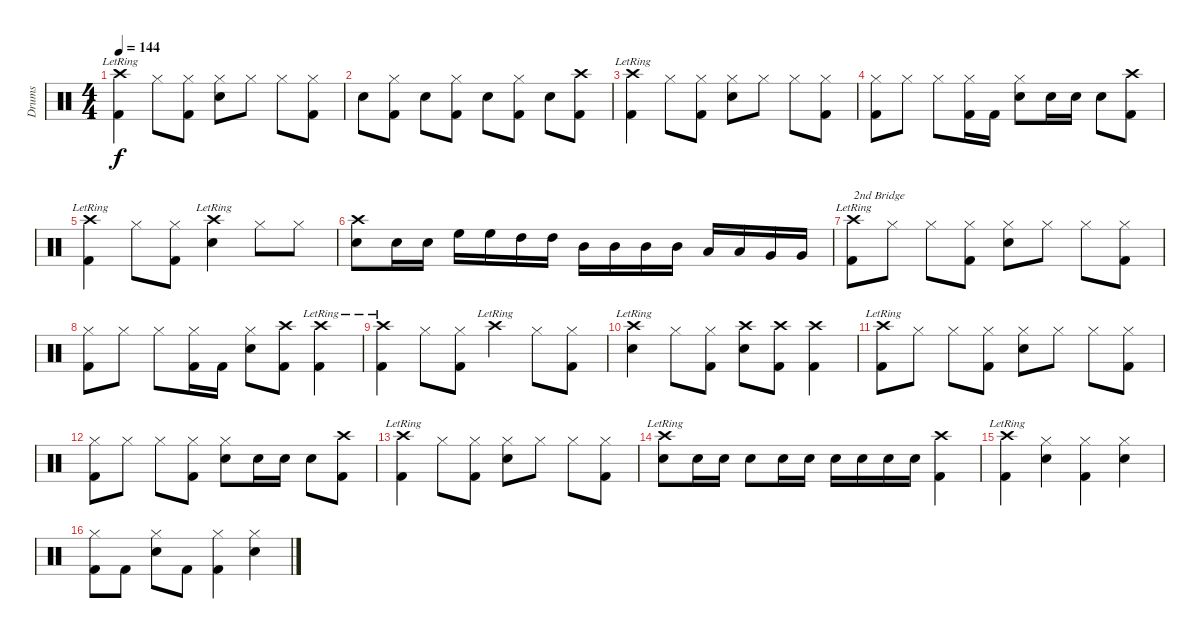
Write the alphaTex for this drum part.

\track ("Drums" "Drums") {instrument percussion}
\staff {score}
\articulation defaults
\ts (4 4)
\tempo 144
\clef neutral
\ks c
("Crash high (hit)"{lr} "Kick (hit) 2").4{dy f} "Hi-Hat (closed)".8 ("Hi-Hat (closed)" "Kick (hit) 2").8 ("Hi-Hat (closed)" "Snare (hit) 2").8 "Hi-Hat (closed)".8 "Hi-Hat (closed)".8 ("Hi-Hat (closed)" "Kick (hit) 2").8 |
"Snare (hit) 2".8 ("Hi-Hat (closed)" "Kick (hit) 2").8 "Snare (hit) 2".8 ("Hi-Hat (closed)" "Kick (hit) 2").8 "Snare (hit) 2".8 ("Hi-Hat (closed)" "Kick (hit) 2").8 "Snare (hit) 2".8 ("Crash high (hit)" "Kick (hit) 2").8 |
("Crash high (hit)"{lr} "Kick (hit) 2").4 "Hi-Hat (closed)".8 ("Hi-Hat (closed)" "Kick (hit) 2").8 ("Hi-Hat (closed)" "Snare (hit) 2").8 "Hi-Hat (closed)".8 "Hi-Hat (closed)".8 ("Hi-Hat (closed)" "Kick (hit) 2").8 |
("Hi-Hat (closed)" "Kick (hit) 2").8 "Hi-Hat (closed)".8 "Hi-Hat (closed)".8 ("Hi-Hat (closed)" "Kick (hit) 2").16 "Kick (hit) 2".16 ("Hi-Hat (closed)" "Snare (hit) 2").8 "Snare (hit) 2".16 "Snare (hit) 2".16 "Snare (hit) 2".8 ("Crash high (hit)" "Kick (hit) 2").8 |
("Crash high (hit)"{lr} "Kick (hit) 2").4 "Hi-Hat (closed)".8 ("Hi-Hat (closed)" "Kick (hit) 2").8 ("Crash high (hit)"{lr} "Snare (hit) 2").4 "Hi-Hat (closed)".8 "Hi-Hat (closed)".8 |
("Crash high (hit)" "Snare (hit) 2").8 "Snare (hit) 2".16 "Snare (hit) 2".16 "High Floor Tom (hit)".16 "High Floor Tom (hit)".16 "High Tom (hit)".16 "High Tom (hit)".16 "Mid Tom (hit)".16 "Mid Tom (hit)".16 "Mid Tom (hit)".16 "Mid Tom (hit)".16 "Low Tom (hit)".16 "Low Tom (hit)".16 "Very Low Tom (hit)".16 "Very Low Tom (hit)".16 |
("Crash high (hit)"{lr} "Kick (hit) 2").8{txt "2nd Bridge"} "Hi-Hat (closed)".8 "Hi-Hat (closed)".8 ("Hi-Hat (closed)" "Kick (hit) 2").8 ("Hi-Hat (closed)" "Snare (hit) 2").8 "Hi-Hat (closed)".8 "Hi-Hat (closed)".8 ("Hi-Hat (closed)" "Kick (hit) 2").8 |
("Hi-Hat (closed)" "Kick (hit) 2").8 "Hi-Hat (closed)".8 "Hi-Hat (closed)".8 ("Hi-Hat (closed)" "Kick (hit) 2").16 "Kick (hit) 2".16 ("Hi-Hat (closed)" "Snare (hit) 2").8 ("Crash high (hit)" "Kick (hit) 2").8 ("Crash high (hit)"{lr} "Kick (hit) 2").4 |
("Crash high (hit)"{lr} "Kick (hit) 2").4 "Hi-Hat (closed)".8 ("Hi-Hat (closed)" "Kick (hit) 2").8 "Crash high (hit)"{lr}.4 "Hi-Hat (closed)".8 ("Hi-Hat (closed)" "Kick (hit) 2").8 |
("Crash high (hit)"{lr} "Snare (hit) 2").4 "Hi-Hat (closed)".8 ("Hi-Hat (closed)" "Kick (hit) 2").8 ("Crash high (hit)" "Snare (hit) 2").8 ("Crash high (hit)" "Kick (hit) 2").8 ("Crash high (hit)" "Kick (hit) 2").4 |
("Crash high (hit)"{lr} "Kick (hit) 2").8 "Hi-Hat (closed)".8 "Hi-Hat (closed)".8 ("Hi-Hat (closed)" "Kick (hit) 2").8 ("Hi-Hat (closed)" "Snare (hit) 2").8 "Hi-Hat (closed)".8 "Hi-Hat (closed)".8 ("Hi-Hat (closed)" "Kick (hit) 2").8 |
("Hi-Hat (closed)" "Kick (hit) 2").8 "Hi-Hat (closed)".8 "Hi-Hat (closed)".8 ("Hi-Hat (closed)" "Kick (hit) 2").8 ("Hi-Hat (closed)" "Snare (hit) 2").8 "Snare (hit) 2".16 "Snare (hit) 2".16 "Snare (hit) 2".8 ("Crash high (hit)" "Kick (hit) 2").8 |
("Crash high (hit)"{lr} "Kick (hit) 2").4 "Hi-Hat (closed)".8 ("Hi-Hat (closed)" "Kick (hit) 2").8 ("Hi-Hat (closed)" "Snare (hit) 2").8 "Hi-Hat (closed)".8 "Hi-Hat (closed)".8 ("Hi-Hat (closed)" "Kick (hit) 2").8 |
("Crash high (hit)"{lr} "Snare (hit) 2").8 "Snare (hit) 2".16 "Snare (hit) 2".16 "Snare (hit) 2".8 "Snare (hit) 2".16 "Snare (hit) 2".16 "Snare (hit) 2".16 "Snare (hit) 2".16 "Snare (hit) 2".16 "Snare (hit) 2".16 ("Crash high (hit)" "Kick (hit) 2").4 |
("Crash high (hit)"{lr} "Kick (hit) 2").4 ("Hi-Hat (closed)" "Snare (hit) 2").4 ("Hi-Hat (closed)" "Kick (hit) 2").4 ("Hi-Hat (closed)" "Snare (hit) 2").4 |
("Hi-Hat (closed)" "Kick (hit) 2").8 "Kick (hit) 2".8 ("Hi-Hat (closed)" "Snare (hit) 2").8 "Kick (hit) 2".8 ("Hi-Hat (closed)" "Kick (hit) 2").4 ("Hi-Hat (closed)" "Snare (hit) 2").4
